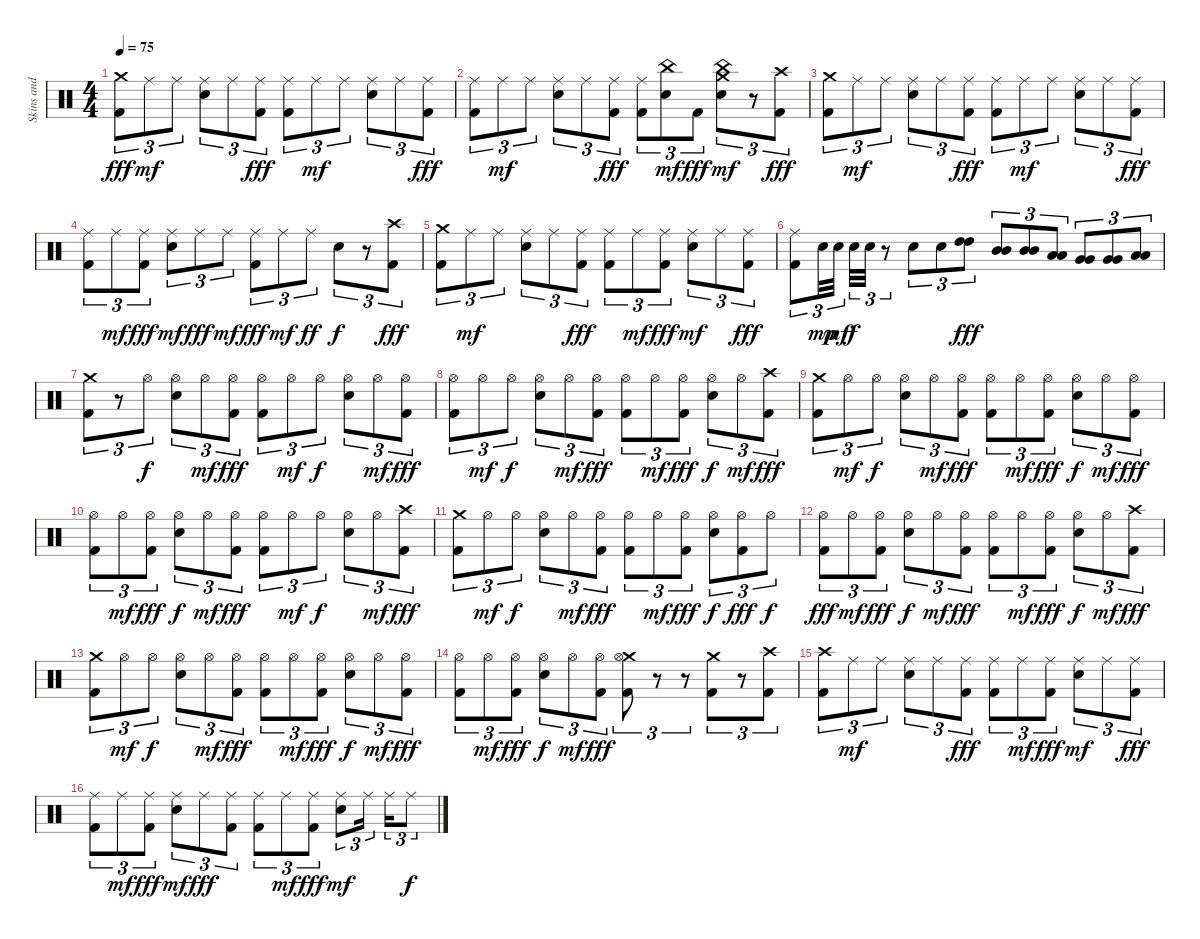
\track ("Skins and Cymbals" "Skins and ") {instrument percussion}
\staff {score}
\articulation defaults
\ts (4 4)
\tempo 75
\clef neutral
\ks c
("Crash medium (hit)" "Kick (hit) 2").8{tu (3 2) dy fff} "Ride (middle)".8{tu (3 2) dy mf} "Ride (middle)".8{tu (3 2)} ("Ride (middle)" "Electric Snare (hit)").8{tu (3 2)} "Ride (middle)".8{tu (3 2)} ("Ride (middle)" "Kick (hit) 2").8{tu (3 2) dy fff} ("Ride (middle)" "Kick (hit) 2").8{tu (3 2)} "Ride (middle)".8{tu (3 2) dy mf} "Ride (middle)".8{tu (3 2)} ("Ride (middle)" "Electric Snare (hit)").8{tu (3 2)} "Ride (middle)".8{tu (3 2)} ("Ride (middle)" "Kick (hit) 2").8{tu (3 2) dy fff} |
("Ride (middle)" "Kick (hit) 2").8{tu (3 2)} "Ride (middle)".8{tu (3 2) dy mf} "Ride (middle)".8{tu (3 2)} ("Ride (middle)" "Electric Snare (hit)").8{tu (3 2)} "Ride (middle)".8{tu (3 2)} ("Ride (middle)" "Kick (hit) 2").8{tu (3 2) dy fff} ("Ride (middle)" "Kick (hit) 2").8{tu (3 2)} ("China (hit)" "Electric Snare (hit)").8{tu (3 2) dy mf} "Kick (hit) 2".8{tu (3 2) dy fff} ("Crash medium (hit)" "China (hit)" "Electric Snare (hit)").8{tu (3 2) dy mf} r.8{tu (3 2)} ("Crash high (hit)" "Kick (hit) 2").8{tu (3 2) dy fff} |
("Crash medium (hit)" "Kick (hit) 2").8{tu (3 2)} "Ride (middle)".8{tu (3 2) dy mf} "Ride (middle)".8{tu (3 2)} ("Ride (middle)" "Electric Snare (hit)").8{tu (3 2)} "Ride (middle)".8{tu (3 2)} ("Ride (middle)" "Kick (hit) 2").8{tu (3 2) dy fff} ("Ride (middle)" "Kick (hit) 2").8{tu (3 2)} "Ride (middle)".8{tu (3 2) dy mf} "Ride (middle)".8{tu (3 2)} ("Ride (middle)" "Electric Snare (hit)").8{tu (3 2)} "Ride (middle)".8{tu (3 2)} ("Ride (middle)" "Kick (hit) 2").8{tu (3 2) dy fff} |
("Ride (middle)" "Kick (hit) 2").8{tu (3 2)} "Ride (middle)".8{tu (3 2) dy mf} ("Ride (middle)" "Kick (hit) 2").8{tu (3 2) dy fff} ("Ride (middle)" "Electric Snare (hit)").8{tu (3 2) dy mf} "Ride (middle)".8{tu (3 2) dy fff} "Ride (middle)".8{tu (3 2) dy mf} ("Ride (middle)" "Kick (hit) 2").8{tu (3 2) dy fff} "Ride (middle)".8{tu (3 2) dy mf} "Ride (middle)".8{tu (3 2) dy ff} "Electric Snare (hit)".8{tu (3 2) dy f} r.8{tu (3 2)} ("Crash high (hit)" "Kick (hit) 2").8{tu (3 2) dy fff} |
("Crash medium (hit)" "Kick (hit) 2").8{tu (3 2)} "Ride (middle)".8{tu (3 2) dy mf} "Ride (middle)".8{tu (3 2)} ("Ride (middle)" "Electric Snare (hit)").8{tu (3 2)} "Ride (middle)".8{tu (3 2)} ("Ride (middle)" "Kick (hit) 2").8{tu (3 2) dy fff} ("Ride (middle)" "Kick (hit) 2").8{tu (3 2)} "Ride (middle)".8{tu (3 2) dy mf} ("Ride (middle)" "Kick (hit) 2").8{tu (3 2) dy fff} ("Ride (middle)" "Electric Snare (hit)").8{tu (3 2) dy mf} "Ride (middle)".8{tu (3 2)} ("Ride (middle)" "Kick (hit) 2").8{tu (3 2) dy fff} |
("Ride (middle)" "Kick (hit) 2").8{tu (3 2)} "Electric Snare (hit)".32{tu (3 2) dy mp} "Electric Snare (hit)".32{tu (3 2) dy mf} "Electric Snare (hit)".32{tu (3 2) dy f} "Electric Snare (hit)".32{tu (3 2)} r.8{tu (3 2)} "Electric Snare (hit)".8{tu (3 2)} "Electric Snare (hit)".8{tu (3 2)} ("High Tom (hit)" "High Tom (hit)").8{tu (3 2) dy fff} ("Mid Tom (hit)" "Mid Tom (hit)").8{tu (3 2)} ("Mid Tom (hit)" "Mid Tom (hit)").8{tu (3 2)} ("Low Tom (hit)" "Low Tom (hit)").8{tu (3 2)} ("Very Low Tom (hit)" "Very Low Tom (hit)").8{tu (3 2)} ("Very Low Tom (hit)" "Very Low Tom (hit)").8{tu (3 2)} ("Low Floor Tom (hit)" "Low Floor Tom (hit)").8{tu (3 2)} |
("Crash medium (hit)" "Kick (hit) 2").8{tu (3 2)} r.8{tu (3 2)} "Hi-Hat (open)".8{tu (3 2) dy f} ("Hi-Hat (open)" "Electric Snare (hit)").8{tu (3 2)} "Hi-Hat (open)".8{tu (3 2) dy mf} ("Hi-Hat (open)" "Kick (hit) 2").8{tu (3 2) dy fff} ("Hi-Hat (open)" "Kick (hit) 2").8{tu (3 2)} "Hi-Hat (open)".8{tu (3 2) dy mf} "Hi-Hat (open)".8{tu (3 2) dy f} ("Hi-Hat (open)" "Electric Snare (hit)").8{tu (3 2)} "Hi-Hat (open)".8{tu (3 2) dy mf} ("Hi-Hat (open)" "Kick (hit) 2").8{tu (3 2) dy fff} |
("Hi-Hat (open)" "Kick (hit) 2").8{tu (3 2)} "Hi-Hat (open)".8{tu (3 2) dy mf} "Hi-Hat (open)".8{tu (3 2) dy f} ("Hi-Hat (open)" "Electric Snare (hit)").8{tu (3 2)} "Hi-Hat (open)".8{tu (3 2) dy mf} ("Hi-Hat (open)" "Kick (hit) 2").8{tu (3 2) dy fff} ("Hi-Hat (open)" "Kick (hit) 2").8{tu (3 2)} "Hi-Hat (open)".8{tu (3 2) dy mf} ("Hi-Hat (open)" "Kick (hit) 2").8{tu (3 2) dy fff} ("Hi-Hat (open)" "Electric Snare (hit)").8{tu (3 2) dy f} "Hi-Hat (open)".8{tu (3 2) dy mf} ("Crash high (hit)" "Kick (hit) 2").8{tu (3 2) dy fff} |
("Crash medium (hit)" "Kick (hit) 2").8{tu (3 2)} "Hi-Hat (open)".8{tu (3 2) dy mf} "Hi-Hat (open)".8{tu (3 2) dy f} ("Hi-Hat (open)" "Electric Snare (hit)").8{tu (3 2)} "Hi-Hat (open)".8{tu (3 2) dy mf} ("Hi-Hat (open)" "Kick (hit) 2").8{tu (3 2) dy fff} ("Hi-Hat (open)" "Kick (hit) 2").8{tu (3 2)} "Hi-Hat (open)".8{tu (3 2) dy mf} ("Hi-Hat (open)" "Kick (hit) 2").8{tu (3 2) dy fff} ("Hi-Hat (open)" "Electric Snare (hit)").8{tu (3 2) dy f} "Hi-Hat (open)".8{tu (3 2) dy mf} ("Hi-Hat (open)" "Kick (hit) 2").8{tu (3 2) dy fff} |
("Hi-Hat (open)" "Kick (hit) 2").8{tu (3 2)} "Hi-Hat (open)".8{tu (3 2) dy mf} ("Hi-Hat (open)" "Kick (hit) 2").8{tu (3 2) dy fff} ("Hi-Hat (open)" "Electric Snare (hit)").8{tu (3 2) dy f} "Hi-Hat (open)".8{tu (3 2) dy mf} ("Hi-Hat (open)" "Kick (hit) 2").8{tu (3 2) dy fff} ("Hi-Hat (open)" "Kick (hit) 2").8{tu (3 2)} "Hi-Hat (open)".8{tu (3 2) dy mf} "Hi-Hat (open)".8{tu (3 2) dy f} ("Hi-Hat (open)" "Electric Snare (hit)").8{tu (3 2)} "Hi-Hat (open)".8{tu (3 2) dy mf} ("Crash high (hit)" "Kick (hit) 2").8{tu (3 2) dy fff} |
("Crash medium (hit)" "Kick (hit) 2").8{tu (3 2)} "Hi-Hat (open)".8{tu (3 2) dy mf} "Hi-Hat (open)".8{tu (3 2) dy f} ("Hi-Hat (open)" "Electric Snare (hit)").8{tu (3 2)} "Hi-Hat (open)".8{tu (3 2) dy mf} ("Hi-Hat (open)" "Kick (hit) 2").8{tu (3 2) dy fff} ("Hi-Hat (open)" "Kick (hit) 2").8{tu (3 2)} "Hi-Hat (open)".8{tu (3 2) dy mf} ("Hi-Hat (open)" "Kick (hit) 2").8{tu (3 2) dy fff} ("Hi-Hat (open)" "Electric Snare (hit)").8{tu (3 2) dy f} ("Hi-Hat (open)" "Kick (hit) 2").8{tu (3 2) dy fff} "Hi-Hat (open)".8{tu (3 2) dy f} |
("Hi-Hat (open)" "Kick (hit) 2").8{tu (3 2) dy fff} "Hi-Hat (open)".8{tu (3 2) dy mf} ("Hi-Hat (open)" "Kick (hit) 2").8{tu (3 2) dy fff} ("Hi-Hat (open)" "Electric Snare (hit)").8{tu (3 2) dy f} "Hi-Hat (open)".8{tu (3 2) dy mf} ("Hi-Hat (open)" "Kick (hit) 2").8{tu (3 2) dy fff} ("Hi-Hat (open)" "Kick (hit) 2").8{tu (3 2)} "Hi-Hat (open)".8{tu (3 2) dy mf} ("Hi-Hat (open)" "Kick (hit) 2").8{tu (3 2) dy fff} ("Hi-Hat (open)" "Electric Snare (hit)").8{tu (3 2) dy f} "Hi-Hat (open)".8{tu (3 2) dy mf} ("Crash high (hit)" "Kick (hit) 2").8{tu (3 2) dy fff} |
("Crash medium (hit)" "Kick (hit) 2").8{tu (3 2)} "Hi-Hat (open)".8{tu (3 2) dy mf} "Hi-Hat (open)".8{tu (3 2) dy f} ("Hi-Hat (open)" "Electric Snare (hit)").8{tu (3 2)} "Hi-Hat (open)".8{tu (3 2) dy mf} ("Hi-Hat (open)" "Kick (hit) 2").8{tu (3 2) dy fff} ("Hi-Hat (open)" "Kick (hit) 2").8{tu (3 2)} "Hi-Hat (open)".8{tu (3 2) dy mf} ("Hi-Hat (open)" "Kick (hit) 2").8{tu (3 2) dy fff} ("Hi-Hat (open)" "Electric Snare (hit)").8{tu (3 2) dy f} "Hi-Hat (open)".8{tu (3 2) dy mf} ("Hi-Hat (open)" "Kick (hit) 2").8{tu (3 2) dy fff} |
("Hi-Hat (open)" "Kick (hit) 2").8{tu (3 2)} "Hi-Hat (open)".8{tu (3 2) dy mf} ("Hi-Hat (open)" "Kick (hit) 2").8{tu (3 2) dy fff} ("Hi-Hat (open)" "Electric Snare (hit)").8{tu (3 2) dy f} "Hi-Hat (open)".8{tu (3 2) dy mf} ("Hi-Hat (open)" "Kick (hit) 2").8{tu (3 2) dy fff} ("Crash medium (hit)" "Hi-Hat (open)" "Kick (hit) 2").8{tu (3 2)} r.8{tu (3 2)} r.8{tu (3 2)} ("Crash medium (hit)" "Kick (hit) 2").8{tu (3 2)} r.8{tu (3 2)} ("Crash high (hit)" "Kick (hit) 2").8{tu (3 2)} |
("Crash high (hit)" "Kick (hit) 2").8{tu (3 2)} "Ride (middle)".8{tu (3 2) dy mf} "Ride (middle)".8{tu (3 2)} ("Ride (middle)" "Electric Snare (hit)").8{tu (3 2)} "Ride (middle)".8{tu (3 2)} ("Ride (middle)" "Kick (hit) 2").8{tu (3 2) dy fff} ("Ride (middle)" "Kick (hit) 2").8{tu (3 2)} "Ride (middle)".8{tu (3 2) dy mf} ("Ride (middle)" "Kick (hit) 2").8{tu (3 2) dy fff} ("Ride (middle)" "Electric Snare (hit)").8{tu (3 2) dy mf} "Ride (middle)".8{tu (3 2)} ("Ride (middle)" "Kick (hit) 2").8{tu (3 2) dy fff} |
("Ride (middle)" "Kick (hit) 2").8{tu (3 2)} "Ride (middle)".8{tu (3 2) dy mf} ("Ride (middle)" "Kick (hit) 2").8{tu (3 2) dy fff} ("Ride (middle)" "Electric Snare (hit)").8{tu (3 2) dy mf} "Ride (middle)".8{tu (3 2) dy fff} ("Ride (middle)" "Kick (hit) 2").8{tu (3 2)} ("Ride (middle)" "Kick (hit) 2").8{tu (3 2)} "Ride (middle)".8{tu (3 2) dy mf} ("Ride (middle)" "Kick (hit) 2").8{tu (3 2) dy fff} ("Ride (middle)" "Electric Snare (hit)").8{tu (3 2) dy mf} "Ride (middle)".16{tu (3 2)} "Ride (middle)".16{tu (3 2)} "Ride (middle)".8{tu (3 2) dy f}
